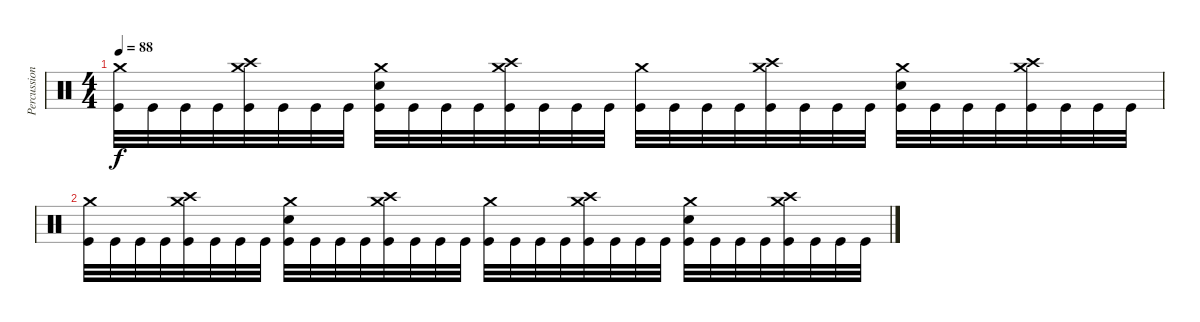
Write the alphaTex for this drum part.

\track ("Percussion" "Percussion") {instrument percussion}
\staff {score}
\articulation defaults
\ts (4 4)
\tempo 88
\clef neutral
\ks c
("Crash medium (hit)" "Kick (hit)").32{dy f} "Kick (hit)".32 "Kick (hit)".32 "Kick (hit)".32 ("Crash medium (hit)" "Crash high (hit)" "Kick (hit)").32 "Kick (hit)".32 "Kick (hit)".32 "Kick (hit)".32 ("Crash medium (hit)" "Electric Snare (hit)" "Kick (hit)").32 "Kick (hit)".32 "Kick (hit)".32 "Kick (hit)".32 ("Crash medium (hit)" "Crash high (hit)" "Kick (hit)").32 "Kick (hit)".32 "Kick (hit)".32 "Kick (hit)".32 ("Crash medium (hit)" "Kick (hit)").32 "Kick (hit)".32 "Kick (hit)".32 "Kick (hit)".32 ("Crash medium (hit)" "Crash high (hit)" "Kick (hit)").32 "Kick (hit)".32 "Kick (hit)".32 "Kick (hit)".32 ("Crash medium (hit)" "Electric Snare (hit)" "Kick (hit)").32 "Kick (hit)".32 "Kick (hit)".32 "Kick (hit)".32 ("Crash medium (hit)" "Crash high (hit)" "Kick (hit)").32 "Kick (hit)".32 "Kick (hit)".32 "Kick (hit)".32 |
("Crash medium (hit)" "Kick (hit)").32 "Kick (hit)".32 "Kick (hit)".32 "Kick (hit)".32 ("Crash medium (hit)" "Crash high (hit)" "Kick (hit)").32 "Kick (hit)".32 "Kick (hit)".32 "Kick (hit)".32 ("Crash medium (hit)" "Electric Snare (hit)" "Kick (hit)").32 "Kick (hit)".32 "Kick (hit)".32 "Kick (hit)".32 ("Crash medium (hit)" "Crash high (hit)" "Kick (hit)").32 "Kick (hit)".32 "Kick (hit)".32 "Kick (hit)".32 ("Crash medium (hit)" "Kick (hit)").32 "Kick (hit)".32 "Kick (hit)".32 "Kick (hit)".32 ("Crash medium (hit)" "Crash high (hit)" "Kick (hit)").32 "Kick (hit)".32 "Kick (hit)".32 "Kick (hit)".32 ("Crash medium (hit)" "Electric Snare (hit)" "Kick (hit)").32 "Kick (hit)".32 "Kick (hit)".32 "Kick (hit)".32 ("Crash medium (hit)" "Crash high (hit)" "Kick (hit)").32 "Kick (hit)".32 "Kick (hit)".32 "Kick (hit)".32
